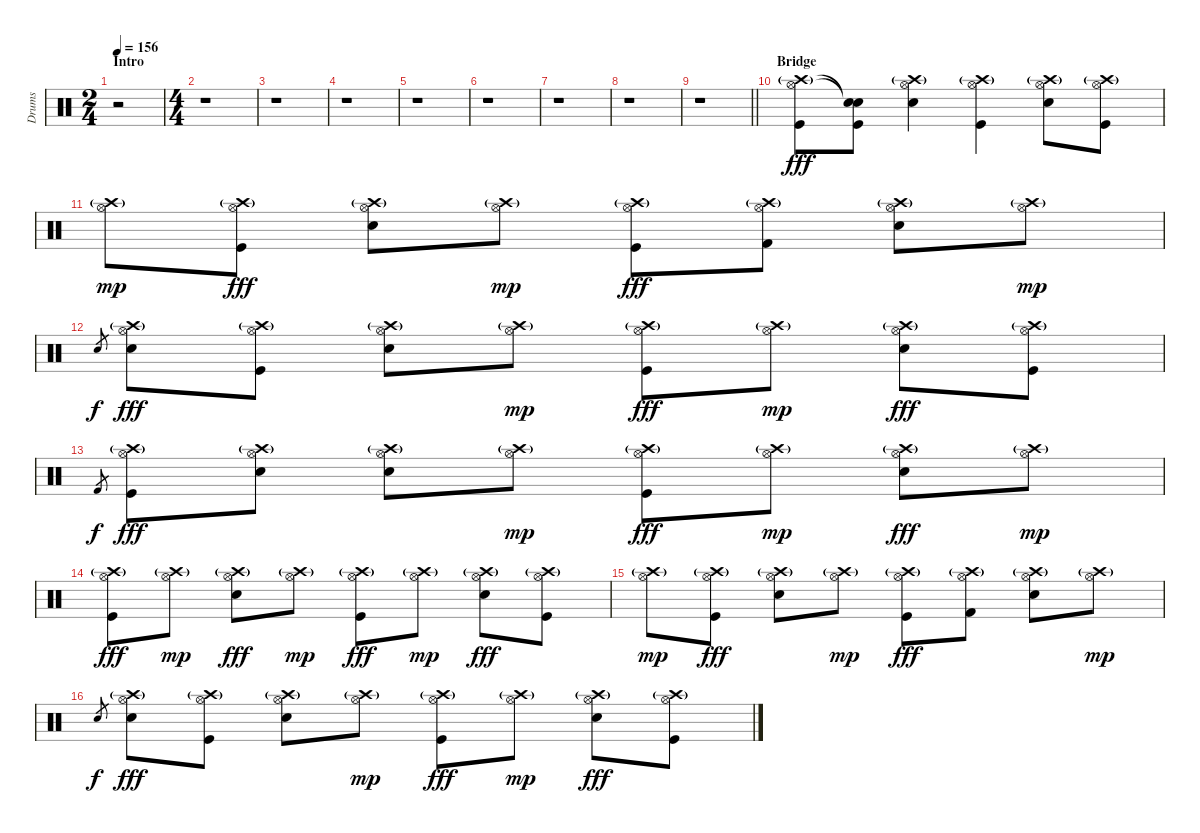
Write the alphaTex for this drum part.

\track ("Drums" "Drums") {instrument percussion}
\staff {score}
\articulation defaults
\ts (2 4)
\section ("" "Intro")
\tempo 156
\clef neutral
\ks c
r.2{dy fff} |
\ts (4 4)
r.1 |
r.1 |
r.1 |
r.1 |
r.1 |
r.1 |
r.1 |
\barLineRight lightlight
r.1 |
\section ("" "Bridge")
("Crash high (hit)"{g} "Hi-Hat (open)" "Kick (hit)").8 ("Snare (hit)"{t} "Snare (hit)"{t} "Kick (hit)").8 ("Crash high (hit)"{g} "Hi-Hat (open)" "Snare (hit) 2").4 ("Crash high (hit)"{g} "Hi-Hat (open)" "Kick (hit)").4 ("Crash high (hit)"{g} "Hi-Hat (open)" "Snare (hit) 2").8 ("Crash high (hit)"{g} "Hi-Hat (open)" "Kick (hit)").8 |
("Crash high (hit)"{g} "Hi-Hat (open)").8{dy mp} ("Crash high (hit)"{g} "Hi-Hat (open)" "Kick (hit)").8{dy fff} ("Crash high (hit)"{g} "Hi-Hat (open)" "Snare (hit) 2").8 ("Crash high (hit)"{g} "Hi-Hat (open)").8{dy mp} ("Crash high (hit)"{g} "Hi-Hat (open)" "Kick (hit)").8{dy fff} ("Crash high (hit)"{g} "Hi-Hat (open)" "Kick (hit) 2").8 ("Crash high (hit)"{g} "Hi-Hat (open)" "Snare (hit) 2").8 ("Crash high (hit)"{g} "Hi-Hat (open)").8{dy mp} |
"Snare (hit) 2".8{gr dy f} ("Crash high (hit)"{g} "Hi-Hat (open)" "Snare (hit) 2").8{dy fff} ("Crash high (hit)"{g} "Hi-Hat (open)" "Kick (hit)").8 ("Crash high (hit)"{g} "Hi-Hat (open)" "Snare (hit) 2").8 ("Crash high (hit)"{g} "Hi-Hat (open)").8{dy mp} ("Crash high (hit)"{g} "Hi-Hat (open)" "Kick (hit)").8{dy fff} ("Crash high (hit)"{g} "Hi-Hat (open)").8{dy mp} ("Crash high (hit)"{g} "Hi-Hat (open)" "Snare (hit) 2").8{dy fff} ("Crash high (hit)"{g} "Hi-Hat (open)" "Kick (hit)").8 |
"Kick (hit) 2".8{gr dy f} ("Crash high (hit)"{g} "Hi-Hat (open)" "Kick (hit)").8{dy fff} ("Crash high (hit)"{g} "Hi-Hat (open)" "Snare (hit) 2").8 ("Crash high (hit)"{g} "Hi-Hat (open)" "Snare (hit) 2").8 ("Crash high (hit)"{g} "Hi-Hat (open)").8{dy mp} ("Crash high (hit)"{g} "Hi-Hat (open)" "Kick (hit)").8{dy fff} ("Crash high (hit)"{g} "Hi-Hat (open)").8{dy mp} ("Crash high (hit)"{g} "Hi-Hat (open)" "Snare (hit) 2").8{dy fff} ("Crash high (hit)"{g} "Hi-Hat (open)").8{dy mp} |
("Crash high (hit)"{g} "Hi-Hat (open)" "Kick (hit)").8{dy fff} ("Crash high (hit)"{g} "Hi-Hat (open)").8{dy mp} ("Crash high (hit)"{g} "Hi-Hat (open)" "Snare (hit) 2").8{dy fff} ("Crash high (hit)"{g} "Hi-Hat (open)").8{dy mp} ("Crash high (hit)"{g} "Hi-Hat (open)" "Kick (hit)").8{dy fff} ("Crash high (hit)"{g} "Hi-Hat (open)").8{dy mp} ("Crash high (hit)"{g} "Hi-Hat (open)" "Snare (hit) 2").8{dy fff} ("Crash high (hit)"{g} "Hi-Hat (open)" "Kick (hit)").8 |
("Crash high (hit)"{g} "Hi-Hat (open)").8{dy mp} ("Crash high (hit)"{g} "Hi-Hat (open)" "Kick (hit)").8{dy fff} ("Crash high (hit)"{g} "Hi-Hat (open)" "Snare (hit) 2").8 ("Crash high (hit)"{g} "Hi-Hat (open)").8{dy mp} ("Crash high (hit)"{g} "Hi-Hat (open)" "Kick (hit)").8{dy fff} ("Crash high (hit)"{g} "Hi-Hat (open)" "Kick (hit) 2").8 ("Crash high (hit)"{g} "Hi-Hat (open)" "Snare (hit) 2").8 ("Crash high (hit)"{g} "Hi-Hat (open)").8{dy mp} |
"Snare (hit) 2".8{gr dy f} ("Crash high (hit)"{g} "Hi-Hat (open)" "Snare (hit) 2").8{dy fff} ("Crash high (hit)"{g} "Hi-Hat (open)" "Kick (hit)").8 ("Crash high (hit)"{g} "Hi-Hat (open)" "Snare (hit) 2").8 ("Crash high (hit)"{g} "Hi-Hat (open)").8{dy mp} ("Crash high (hit)"{g} "Hi-Hat (open)" "Kick (hit)").8{dy fff} ("Crash high (hit)"{g} "Hi-Hat (open)").8{dy mp} ("Crash high (hit)"{g} "Hi-Hat (open)" "Snare (hit) 2").8{dy fff} ("Crash high (hit)"{g} "Hi-Hat (open)" "Kick (hit)").8
